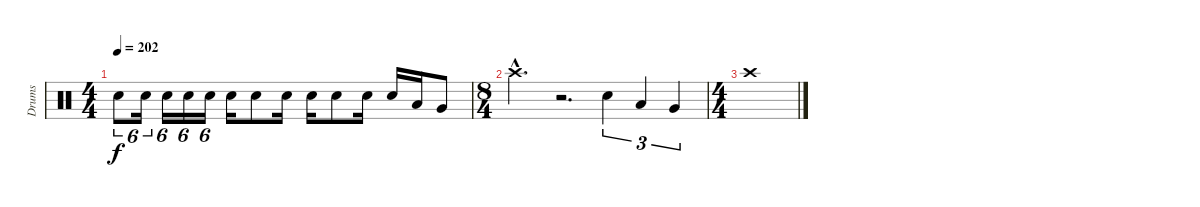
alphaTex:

\track ("Drums" "Drums") {instrument percussion}
\staff {score}
\articulation defaults
\ts (4 4)
\tempo 202
\clef neutral
\ks c "Electric Snare (hit)".8{tu (6 4) dy f} "Electric Snare (hit)".16{tu (6 4)} "Electric Snare (hit)".16{tu (6 4)} "Electric Snare (hit)".16{tu (6 4)} "Electric Snare (hit)".16{tu (6 4)} "Electric Snare (hit)".16 "Electric Snare (hit)".8 "Electric Snare (hit)".16 "Electric Snare (hit)".16 "Electric Snare (hit)".8 "Electric Snare (hit)".16 "Electric Snare (hit)".16 "Low Tom (hit)".16 "Very Low Tom (hit)".8
|
\ts (8 4)
"Crash high (hit)"{hac}.2{d} r.2{d} "Electric Snare (hit)".4{tu (3 2)} "Low Tom (hit)".4{tu (3 2)} "Very Low Tom (hit)".4{tu (3 2)} |
\ts (4 4)
"Crash high (hit)".1
